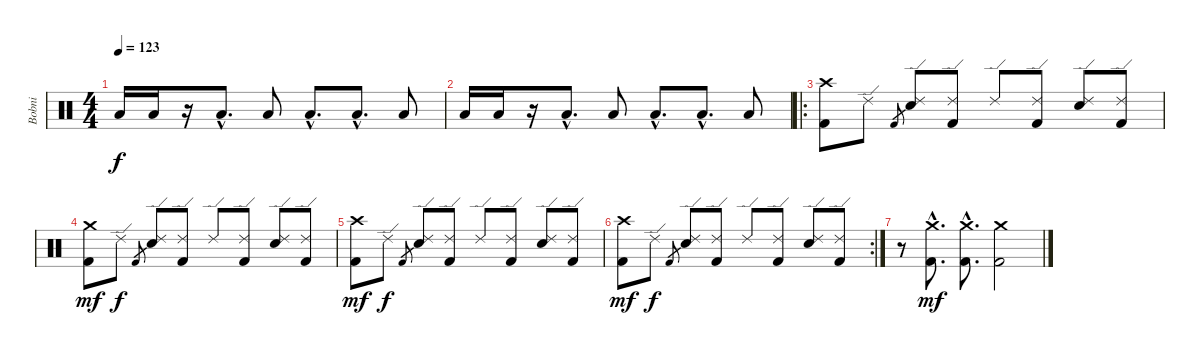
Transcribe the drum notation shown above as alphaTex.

\track ("Bobni" "Bobni") {instrument percussion}
\staff {score}
\articulation defaults
\ts (4 4)
\tempo 123
\clef neutral
\ks c "Low Tom (hit)".16{dy f} "Low Tom (hit)".16
r.16 "Low Tom (hit)"{hac}.8{d} "Low Tom (hit)".8 "Low Tom (hit)"{hac}.8{d} "Low Tom (hit)"{hac}.8{d} "Low Tom (hit)".8 |
"Low Tom (hit)".16 "Low Tom (hit)".16 r.16 "Low Tom (hit)"{hac}.8{d} "Low Tom (hit)".8 "Low Tom (hit)"{hac}.8{d} "Low Tom (hit)"{hac}.8{d} "Low Tom (hit)".8 |
\ro
("Crash high (hit)" "Kick (hit) 2").8 "Ride (edge) 2".8 "Kick (hit) 2".8{gr} ("Ride (edge) 2" "Snare (hit) 2").8 ("Ride (edge) 2" "Kick (hit) 2").8 "Ride (edge) 2".8 ("Ride (edge) 2" "Kick (hit) 2").8 ("Ride (edge) 2" "Snare (hit) 2").8 ("Ride (edge) 2" "Kick (hit) 2").8 |
("Crash medium (hit)" "Kick (hit) 2").8{dy mf} "Ride (edge) 2".8{dy f} "Kick (hit) 2".8{gr} ("Ride (edge) 2" "Snare (hit) 2").8 ("Ride (edge) 2" "Kick (hit) 2").8 "Ride (edge) 2".8 ("Ride (edge) 2" "Kick (hit) 2").8 ("Ride (edge) 2" "Snare (hit) 2").8 ("Ride (edge) 2" "Kick (hit) 2").8 |
("Crash high (hit)" "Kick (hit) 2").8{dy mf} "Ride (edge) 2".8{dy f} "Kick (hit) 2".8{gr} ("Ride (edge) 2" "Snare (hit) 2").8 ("Ride (edge) 2" "Kick (hit) 2").8 "Ride (edge) 2".8 ("Ride (edge) 2" "Kick (hit) 2").8 ("Ride (edge) 2" "Snare (hit) 2").8 ("Ride (edge) 2" "Kick (hit) 2").8 |
\rc 2
("Crash high (hit)" "Kick (hit) 2").8{dy mf} "Ride (edge) 2".8{dy f} "Kick (hit) 2".8{gr} ("Ride (edge) 2" "Snare (hit) 2").8 ("Ride (edge) 2" "Kick (hit) 2").8 "Ride (edge) 2".8 ("Ride (edge) 2" "Kick (hit) 2").8 ("Ride (edge) 2" "Snare (hit) 2").8 ("Ride (edge) 2" "Kick (hit) 2").8 |
r.8 ("Crash medium (hit)"{hac} "Kick (hit) 2"{hac}).8{d dy mf} ("Crash medium (hit)"{hac} "Kick (hit) 2"{hac}).8{d} ("Crash medium (hit)" "Kick (hit) 2").2
